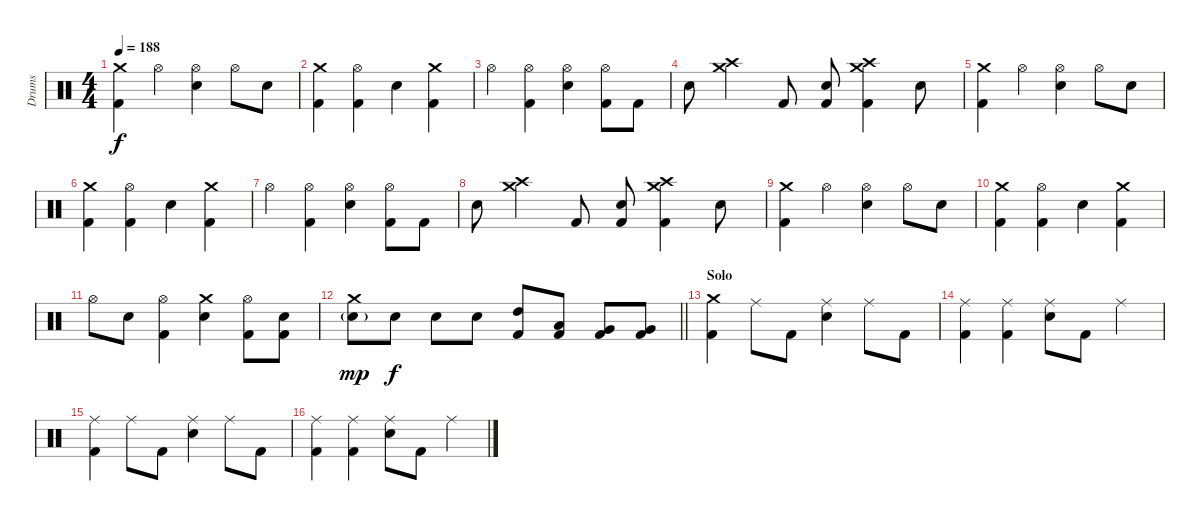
\track ("Drums" "Drums") {instrument percussion}
\staff {score}
\articulation defaults
\ts (4 4)
\tempo 188
\clef neutral
\ks c
("Crash medium (hit)" "Kick (hit) 2").4{dy f} "Hi-Hat (open)".4 ("Hi-Hat (open)" "Electric Snare (hit)").4 "Hi-Hat (open)".8 "Electric Snare (hit)".8 |
("Crash medium (hit)" "Kick (hit) 2").4 ("Hi-Hat (open)" "Kick (hit) 2").4 "Electric Snare (hit)".4 ("Crash medium (hit)" "Kick (hit) 2").4 |
"Hi-Hat (open)".4 ("Hi-Hat (open)" "Kick (hit) 2").4 ("Hi-Hat (open)" "Electric Snare (hit)").4 ("Hi-Hat (open)" "Kick (hit) 2").8 "Kick (hit) 2".8 |
"Electric Snare (hit)".8 ("Crash medium (hit)" "Crash high (hit)").4 "Kick (hit) 2".8 ("Electric Snare (hit)" "Kick (hit) 2").8 ("Crash medium (hit)" "Crash high (hit)" "Kick (hit) 2").4 "Electric Snare (hit)".8 |
("Crash medium (hit)" "Kick (hit) 2").4 "Hi-Hat (open)".4 ("Hi-Hat (open)" "Electric Snare (hit)").4 "Hi-Hat (open)".8 "Electric Snare (hit)".8 |
("Crash medium (hit)" "Kick (hit) 2").4 ("Hi-Hat (open)" "Kick (hit) 2").4 "Electric Snare (hit)".4 ("Crash medium (hit)" "Kick (hit) 2").4 |
"Hi-Hat (open)".4 ("Hi-Hat (open)" "Kick (hit) 2").4 ("Hi-Hat (open)" "Electric Snare (hit)").4 ("Hi-Hat (open)" "Kick (hit) 2").8 "Kick (hit) 2".8 |
"Electric Snare (hit)".8 ("Crash medium (hit)" "Crash high (hit)").4 "Kick (hit) 2".8 ("Electric Snare (hit)" "Kick (hit) 2").8 ("Crash medium (hit)" "Crash high (hit)" "Kick (hit) 2").4 "Electric Snare (hit)".8 |
("Crash medium (hit)" "Kick (hit) 2").4 "Hi-Hat (open)".4 ("Hi-Hat (open)" "Electric Snare (hit)").4 "Hi-Hat (open)".8 "Electric Snare (hit)".8 |
("Crash medium (hit)" "Kick (hit) 2").4 ("Hi-Hat (open)" "Kick (hit) 2").4 "Electric Snare (hit)".4 ("Crash medium (hit)" "Kick (hit) 2").4 |
"Hi-Hat (open)".8 "Electric Snare (hit)".8 ("Hi-Hat (open)" "Kick (hit) 2").4 ("Crash medium (hit)" "Electric Snare (hit)").4 ("Hi-Hat (open)" "Kick (hit) 2").8 ("Electric Snare (hit)" "Kick (hit) 2").8 |
\barLineRight lightlight
("Crash medium (hit)" "Electric Snare (hit)"{g}).8{dy mp} "Electric Snare (hit)".8{dy f} "Electric Snare (hit)".8 "Electric Snare (hit)".8 ("High Tom (hit)" "Kick (hit) 2").8 ("Low Tom (hit)" "Kick (hit) 2").8 ("Very Low Tom (hit)" "Kick (hit) 2").8 ("Very Low Tom (hit)" "Kick (hit) 2").8 |
\section ("" "Solo")
("Crash medium (hit)" "Kick (hit) 2").4 "Ride (middle)".8 "Kick (hit) 2".8 ("Ride (middle)" "Electric Snare (hit)").4 "Ride (middle)".8 "Kick (hit) 2".8 |
("Ride (middle)" "Kick (hit) 2").4 ("Ride (middle)" "Kick (hit) 2").4 ("Ride (middle)" "Electric Snare (hit)").8 "Kick (hit) 2".8 "Ride (middle)".4 |
("Ride (middle)" "Kick (hit) 2").4 "Ride (middle)".8 "Kick (hit) 2".8 ("Ride (middle)" "Electric Snare (hit)").4 "Ride (middle)".8 "Kick (hit) 2".8 |
("Ride (middle)" "Kick (hit) 2").4 ("Ride (middle)" "Kick (hit) 2").4 ("Ride (middle)" "Electric Snare (hit)").8 "Kick (hit) 2".8 "Ride (middle)".4
